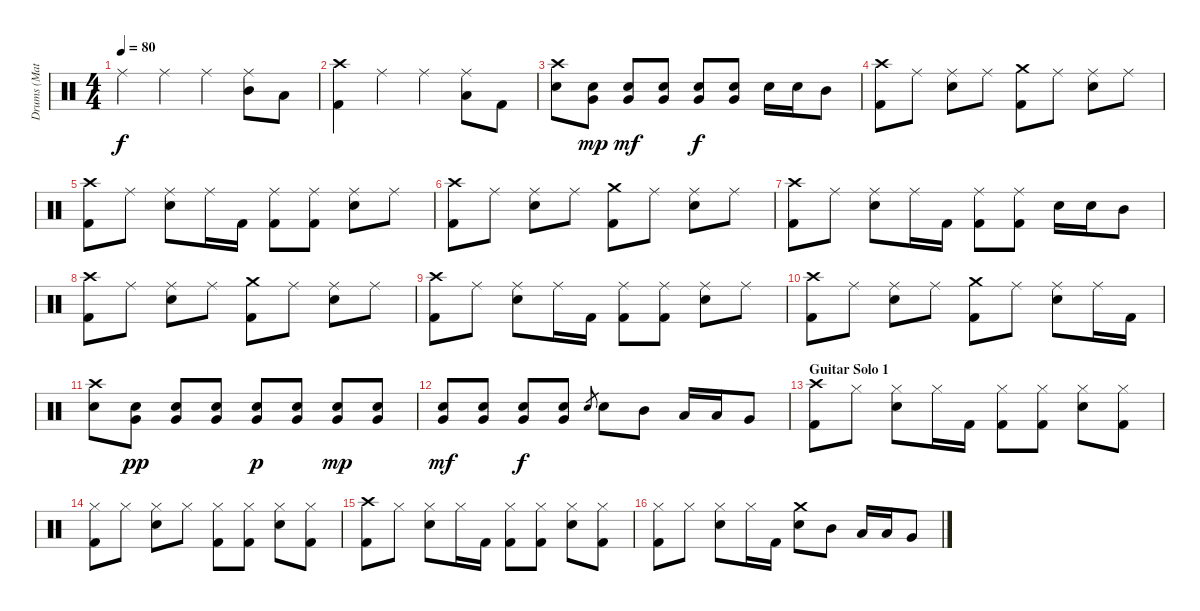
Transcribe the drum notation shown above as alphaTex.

\track ("Drums (Matt)" "Drums (Mat") {instrument percussion}
\staff {score}
\articulation defaults
\ts (4 4)
\tempo 80
\clef neutral
\ks c "Ride (middle)".4{dy f} "Ride (middle)".4 "Ride (middle)".4
("Ride (middle)" "Mid Tom (hit)").8 "Low Tom (hit)".8 |
("Crash high (hit)" "Kick (hit) 2").4 "Ride (middle)".4 "Ride (middle)".4 ("Ride (middle)" "Low Tom (hit)").8 "Kick (hit) 2".8 |
("Crash high (hit)" "Snare (hit) 2").8 ("Very Low Tom (hit)" "Snare (hit) 2").8{dy mp} ("Very Low Tom (hit)" "Snare (hit) 2").8{dy mf} ("Very Low Tom (hit)" "Snare (hit) 2").8 ("Very Low Tom (hit)" "Snare (hit) 2").8{dy f} ("Very Low Tom (hit)" "Snare (hit) 2").8 "Snare (hit) 2".16 "Snare (hit) 2".16 "Mid Tom (hit)".8 |
("Crash high (hit)" "Kick (hit) 2").8 "Ride (middle)".8 ("Ride (middle)" "Snare (hit) 2").8 "Ride (middle)".8 ("Crash medium (hit)" "Kick (hit) 2").8 "Ride (middle)".8 ("Ride (middle)" "Snare (hit) 2").8 "Ride (middle)".8 |
("Crash high (hit)" "Kick (hit) 2").8 "Ride (middle)".8 ("Ride (middle)" "Snare (hit) 2").8 "Ride (middle)".16 "Kick (hit) 2".16 ("Ride (middle)" "Kick (hit) 2").8 ("Ride (middle)" "Kick (hit) 2").8 ("Ride (middle)" "Snare (hit) 2").8 "Ride (middle)".8 |
("Crash high (hit)" "Kick (hit) 2").8 "Ride (middle)".8 ("Ride (middle)" "Snare (hit) 2").8 "Ride (middle)".8 ("Crash medium (hit)" "Kick (hit) 2").8 "Ride (middle)".8 ("Ride (middle)" "Snare (hit) 2").8 "Ride (middle)".8 |
("Crash high (hit)" "Kick (hit) 2").8 "Ride (middle)".8 ("Ride (middle)" "Snare (hit) 2").8 "Ride (middle)".16 "Kick (hit) 2".16 ("Ride (middle)" "Kick (hit) 2").8 ("Ride (middle)" "Kick (hit) 2").8 "Snare (hit) 2".16 "Snare (hit) 2".16 "Mid Tom (hit)".8 |
("Crash high (hit)" "Kick (hit) 2").8 "Ride (middle)".8 ("Ride (middle)" "Snare (hit) 2").8 "Ride (middle)".8 ("Crash medium (hit)" "Kick (hit) 2").8 "Ride (middle)".8 ("Ride (middle)" "Snare (hit) 2").8 "Ride (middle)".8 |
("Crash high (hit)" "Kick (hit) 2").8 "Ride (middle)".8 ("Ride (middle)" "Snare (hit) 2").8 "Ride (middle)".16 "Kick (hit) 2".16 ("Ride (middle)" "Kick (hit) 2").8 ("Ride (middle)" "Kick (hit) 2").8 ("Ride (middle)" "Snare (hit) 2").8 "Ride (middle)".8 |
("Crash high (hit)" "Kick (hit) 2").8 "Ride (middle)".8 ("Ride (middle)" "Snare (hit) 2").8 "Ride (middle)".8 ("Crash medium (hit)" "Kick (hit) 2").8 "Ride (middle)".8 ("Ride (middle)" "Snare (hit) 2").8 "Ride (middle)".16 "Kick (hit) 2".16 |
("Crash high (hit)" "Snare (hit) 2").8 ("Very Low Tom (hit)" "Snare (hit) 2").8{dy pp} ("Very Low Tom (hit)" "Snare (hit) 2").8 ("Very Low Tom (hit)" "Snare (hit) 2").8 ("Very Low Tom (hit)" "Snare (hit) 2").8{dy p} ("Very Low Tom (hit)" "Snare (hit) 2").8 ("Very Low Tom (hit)" "Snare (hit) 2").8{dy mp} ("Very Low Tom (hit)" "Snare (hit) 2").8 |
("Very Low Tom (hit)" "Snare (hit) 2").8{dy mf} ("Very Low Tom (hit)" "Snare (hit) 2").8 ("Very Low Tom (hit)" "Snare (hit) 2").8{dy f} ("Very Low Tom (hit)" "Snare (hit) 2").8 "Snare (hit) 2".8{gr} "Snare (hit) 2".8 "Mid Tom (hit)".8 "Low Tom (hit)".16 "Low Tom (hit)".16 "Very Low Tom (hit)".8 |
\section ("" "Guitar Solo 1")
("Crash high (hit)" "Kick (hit) 2").8 "Hi-Hat (closed)".8 ("Hi-Hat (closed)" "Snare (hit) 2").8 "Hi-Hat (closed)".16 "Kick (hit) 2".16 ("Hi-Hat (closed)" "Kick (hit) 2").8 ("Hi-Hat (closed)" "Kick (hit) 2").8 ("Hi-Hat (closed)" "Snare (hit) 2").8 ("Hi-Hat (closed)" "Kick (hit) 2").8 |
("Hi-Hat (closed)" "Kick (hit) 2").8 "Hi-Hat (closed)".8 ("Hi-Hat (closed)" "Snare (hit) 2").8 "Hi-Hat (closed)".8 ("Hi-Hat (closed)" "Kick (hit) 2").8 ("Hi-Hat (closed)" "Kick (hit) 2").8 ("Hi-Hat (closed)" "Snare (hit) 2").8 ("Hi-Hat (closed)" "Kick (hit) 2").8 |
("Crash high (hit)" "Kick (hit) 2").8 "Hi-Hat (closed)".8 ("Hi-Hat (closed)" "Snare (hit) 2").8 "Hi-Hat (closed)".16 "Kick (hit) 2".16 ("Hi-Hat (closed)" "Kick (hit) 2").8 ("Hi-Hat (closed)" "Kick (hit) 2").8 ("Hi-Hat (closed)" "Snare (hit) 2").8 ("Hi-Hat (closed)" "Kick (hit) 2").8 |
("Hi-Hat (closed)" "Kick (hit) 2").8 "Hi-Hat (closed)".8 ("Hi-Hat (closed)" "Snare (hit) 2").8 "Hi-Hat (closed)".16 "Kick (hit) 2".16 ("Crash medium (hit)" "Snare (hit) 2").8 "Mid Tom (hit)".8 "Low Tom (hit)".16 "Low Tom (hit)".16 "Very Low Tom (hit)".8
